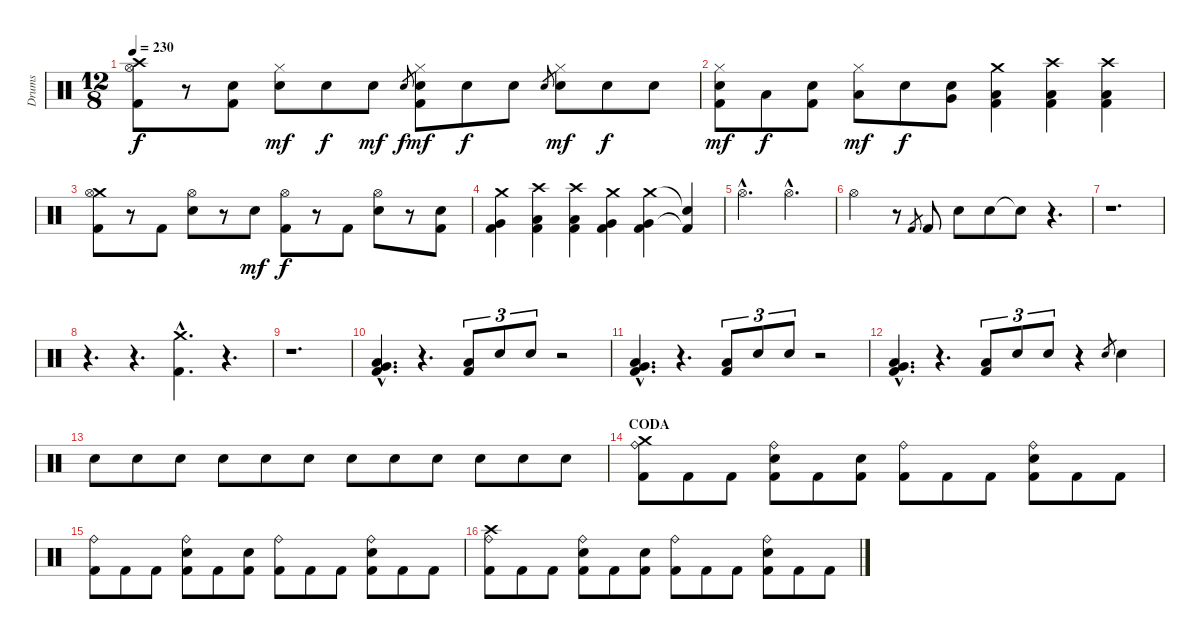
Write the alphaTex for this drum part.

\track ("Drums" "Drums") {instrument percussion}
\staff {score}
\articulation defaults
\ts (12 8)
\tempo 230
\clef neutral
\ks c
("Crash high (hit)" "Hi-Hat (open)" "Kick (hit) 2").8{dy f} r.8 ("Snare (hit) 2" "Kick (hit) 2").8 ("Hi-Hat (closed)" "Snare (hit) 2").8{dy mf} "Snare (hit) 2".8{dy f} "Snare (hit) 2".8{dy mf} "Snare (hit) 2".8{gr dy f} ("Hi-Hat (closed)" "Snare (hit) 2" "Kick (hit) 2").8{dy mf} "Snare (hit) 2".8{dy f} "Snare (hit) 2".8 "Snare (hit) 2".8{gr} ("Hi-Hat (closed)" "Snare (hit) 2").8{dy mf} "Snare (hit) 2".8{dy f} "Snare (hit) 2".8 |
("Hi-Hat (closed)" "Snare (hit) 2" "Kick (hit) 2").8{dy mf} "Low Floor Tom (hit)".8{dy f} ("Snare (hit) 2" "Kick (hit) 2").8 ("Hi-Hat (closed)" "Low Tom (hit)").8{dy mf} "Snare (hit) 2".8{dy f} ("Snare (hit) 2" "Very Low Tom (hit)").8 ("Crash medium (hit)" "Low Floor Tom (hit)" "Kick (hit) 2").4 ("Crash high (hit)" "Low Floor Tom (hit)" "Kick (hit) 2").4 ("Crash high (hit)" "Low Floor Tom (hit)" "Kick (hit) 2").4 |
("Crash medium (hit)" "Hi-Hat (open)" "Kick (hit) 2").8 r.8 "Kick (hit) 2".8 ("Hi-Hat (open)" "Snare (hit) 2").8 r.8 "Snare (hit) 2".8{dy mf} ("Hi-Hat (open)" "Kick (hit) 2").8{dy f} r.8 "Kick (hit) 2".8 ("Hi-Hat (open)" "Snare (hit) 2").8 r.8 ("Snare (hit) 2" "Kick (hit) 2").8 |
("Crash medium (hit)" "Very Low Tom (hit)" "Kick (hit) 2").4 ("Crash high (hit)" "Low Floor Tom (hit)" "Kick (hit) 2").4 ("Crash high (hit)" "Low Floor Tom (hit)" "Kick (hit) 2").4 ("Crash medium (hit)" "Very Low Tom (hit)" "Kick (hit) 2").4 ("Crash medium (hit)" "Very Low Tom (hit)" "Kick (hit) 2").4 ("Snare (hit)"{t} "Kick (hit) 2"{t}).4 |
"Hi-Hat (open)"{hac}.2{d} "Hi-Hat (open)"{hac}.2{d} |
"Hi-Hat (open)".2 r.8 "Kick (hit) 2".8{gr} "Kick (hit) 2".8 "Snare (hit) 2".8 "Snare (hit) 2".8 "Snare (hit)"{t}.8 r.4{d} |
r.1{d} |
r.4{d} r.4{d} ("Crash medium (hit)"{hac} "Kick (hit) 2"{hac}).4{d} r.4{d} |
r.1{d} |
("Very Low Tom (hit)"{hac} "Low Floor Tom (hit)"{hac} "Kick (hit) 2"{hac}).4{d} r.4{d} ("Low Floor Tom (hit)" "Kick (hit) 2").8{tu (3 2)} "Snare (hit) 2".8{tu (3 2)} "Snare (hit) 2".8{tu (3 2)} r.2 |
("Very Low Tom (hit)"{hac} "Low Floor Tom (hit)"{hac} "Kick (hit) 2"{hac}).4{d} r.4{d} ("Low Floor Tom (hit)" "Kick (hit) 2").8{tu (3 2)} "Snare (hit) 2".8{tu (3 2)} "Snare (hit) 2".8{tu (3 2)} r.2 |
("Very Low Tom (hit)"{hac} "Low Floor Tom (hit)"{hac} "Kick (hit) 2"{hac}).4{d} r.4{d} ("Low Floor Tom (hit)" "Kick (hit) 2").8{tu (3 2)} "Snare (hit) 2".8{tu (3 2)} "Snare (hit) 2".8{tu (3 2)} r.4 "Snare (hit) 2".8{gr} "Snare (hit) 2".4 |
"Snare (hit) 2".8 "Snare (hit) 2".8 "Snare (hit) 2".8 "Snare (hit) 2".8 "Snare (hit) 2".8 "Snare (hit) 2".8 "Snare (hit) 2".8 "Snare (hit) 2".8 "Snare (hit) 2".8 "Snare (hit) 2".8 "Snare (hit) 2".8 "Snare (hit) 2".8 |
\section ("" "CODA")
("Crash medium (hit)" "Ride (bell)" "Kick (hit) 2").8 "Kick (hit) 2".8 "Kick (hit) 2".8 ("Ride (bell)" "Snare (hit) 2" "Kick (hit) 2").8 "Kick (hit) 2".8 ("Snare (hit) 2" "Kick (hit) 2").8 ("Ride (bell)" "Kick (hit) 2").8 "Kick (hit) 2".8 "Kick (hit) 2".8 ("Ride (bell)" "Snare (hit) 2" "Kick (hit) 2").8 "Kick (hit) 2".8 "Kick (hit) 2".8 |
("Ride (bell)" "Kick (hit) 2").8 "Kick (hit) 2".8 "Kick (hit) 2".8 ("Ride (bell)" "Snare (hit) 2" "Kick (hit) 2").8 "Kick (hit) 2".8 ("Snare (hit) 2" "Kick (hit) 2").8 ("Ride (bell)" "Kick (hit) 2").8 "Kick (hit) 2".8 "Kick (hit) 2".8 ("Ride (bell)" "Snare (hit) 2" "Kick (hit) 2").8 "Kick (hit) 2".8 "Kick (hit) 2".8 |
("Crash high (hit)" "Ride (bell)" "Kick (hit) 2").8 "Kick (hit) 2".8 "Kick (hit) 2".8 ("Ride (bell)" "Snare (hit) 2" "Kick (hit) 2").8 "Kick (hit) 2".8 ("Snare (hit) 2" "Kick (hit) 2").8 ("Ride (bell)" "Kick (hit) 2").8 "Kick (hit) 2".8 "Kick (hit) 2".8 ("Ride (bell)" "Snare (hit) 2" "Kick (hit) 2").8 "Kick (hit) 2".8 "Kick (hit) 2".8
